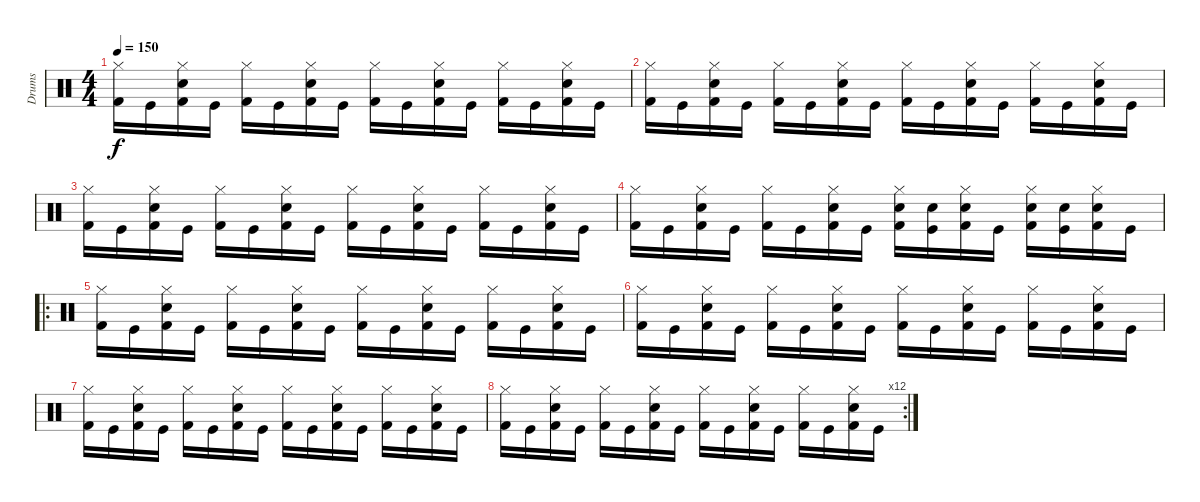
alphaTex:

\track ("Drums" "Drums") {instrument percussion}
\staff {score}
\articulation defaults
\ts (4 4)
\tempo 150
\clef neutral
\ks c
("Hi-Hat (closed)" "Kick (hit) 2").16{dy f} "Kick (hit)".16 ("Hi-Hat (closed)" "Snare (hit) 2" "Kick (hit) 2").16 "Kick (hit)".16 ("Hi-Hat (closed)" "Kick (hit) 2").16 "Kick (hit)".16 ("Hi-Hat (closed)" "Snare (hit) 2" "Kick (hit) 2").16 "Kick (hit)".16 ("Hi-Hat (closed)" "Kick (hit) 2").16 "Kick (hit)".16 ("Hi-Hat (closed)" "Snare (hit) 2" "Kick (hit) 2").16 "Kick (hit)".16 ("Hi-Hat (closed)" "Kick (hit) 2").16 "Kick (hit)".16 ("Hi-Hat (closed)" "Snare (hit) 2" "Kick (hit) 2").16 "Kick (hit)".16 |
("Hi-Hat (closed)" "Kick (hit) 2").16 "Kick (hit)".16 ("Hi-Hat (closed)" "Snare (hit) 2" "Kick (hit) 2").16 "Kick (hit)".16 ("Hi-Hat (closed)" "Kick (hit) 2").16 "Kick (hit)".16 ("Hi-Hat (closed)" "Snare (hit) 2" "Kick (hit) 2").16 "Kick (hit)".16 ("Hi-Hat (closed)" "Kick (hit) 2").16 "Kick (hit)".16 ("Hi-Hat (closed)" "Snare (hit) 2" "Kick (hit) 2").16 "Kick (hit)".16 ("Hi-Hat (closed)" "Kick (hit) 2").16 "Kick (hit)".16 ("Hi-Hat (closed)" "Snare (hit) 2" "Kick (hit) 2").16 "Kick (hit)".16 |
("Hi-Hat (closed)" "Kick (hit) 2").16 "Kick (hit)".16 ("Hi-Hat (closed)" "Snare (hit) 2" "Kick (hit) 2").16 "Kick (hit)".16 ("Hi-Hat (closed)" "Kick (hit) 2").16 "Kick (hit)".16 ("Hi-Hat (closed)" "Snare (hit) 2" "Kick (hit) 2").16 "Kick (hit)".16 ("Hi-Hat (closed)" "Kick (hit) 2").16 "Kick (hit)".16 ("Hi-Hat (closed)" "Snare (hit) 2" "Kick (hit) 2").16 "Kick (hit)".16 ("Hi-Hat (closed)" "Kick (hit) 2").16 "Kick (hit)".16 ("Hi-Hat (closed)" "Snare (hit) 2" "Kick (hit) 2").16 "Kick (hit)".16 |
("Hi-Hat (closed)" "Kick (hit) 2").16 "Kick (hit)".16 ("Hi-Hat (closed)" "Snare (hit) 2" "Kick (hit) 2").16 "Kick (hit)".16 ("Hi-Hat (closed)" "Kick (hit) 2").16 "Kick (hit)".16 ("Hi-Hat (closed)" "Snare (hit) 2" "Kick (hit) 2").16 "Kick (hit)".16 ("Hi-Hat (closed)" "Snare (hit) 2" "Kick (hit) 2").16 ("Snare (hit) 2" "Kick (hit)").16 ("Hi-Hat (closed)" "Snare (hit) 2" "Kick (hit) 2").16 "Kick (hit)".16 ("Hi-Hat (closed)" "Snare (hit) 2" "Kick (hit) 2").16 ("Snare (hit) 2" "Kick (hit)").16 ("Hi-Hat (closed)" "Snare (hit) 2" "Kick (hit) 2").16 "Kick (hit)".16 |
\ro
("Hi-Hat (closed)" "Kick (hit) 2").16 "Kick (hit)".16 ("Hi-Hat (closed)" "Snare (hit) 2" "Kick (hit) 2").16 "Kick (hit)".16 ("Hi-Hat (closed)" "Kick (hit) 2").16 "Kick (hit)".16 ("Hi-Hat (closed)" "Snare (hit) 2" "Kick (hit) 2").16 "Kick (hit)".16 ("Hi-Hat (closed)" "Kick (hit) 2").16 "Kick (hit)".16 ("Hi-Hat (closed)" "Snare (hit) 2" "Kick (hit) 2").16 "Kick (hit)".16 ("Hi-Hat (closed)" "Kick (hit) 2").16 "Kick (hit)".16 ("Hi-Hat (closed)" "Snare (hit) 2" "Kick (hit) 2").16 "Kick (hit)".16 |
("Hi-Hat (closed)" "Kick (hit) 2").16 "Kick (hit)".16 ("Hi-Hat (closed)" "Snare (hit) 2" "Kick (hit) 2").16 "Kick (hit)".16 ("Hi-Hat (closed)" "Kick (hit) 2").16 "Kick (hit)".16 ("Hi-Hat (closed)" "Snare (hit) 2" "Kick (hit) 2").16 "Kick (hit)".16 ("Hi-Hat (closed)" "Kick (hit) 2").16 "Kick (hit)".16 ("Hi-Hat (closed)" "Snare (hit) 2" "Kick (hit) 2").16 "Kick (hit)".16 ("Hi-Hat (closed)" "Kick (hit) 2").16 "Kick (hit)".16 ("Hi-Hat (closed)" "Snare (hit) 2" "Kick (hit) 2").16 "Kick (hit)".16 |
("Hi-Hat (closed)" "Kick (hit) 2").16 "Kick (hit)".16 ("Hi-Hat (closed)" "Snare (hit) 2" "Kick (hit) 2").16 "Kick (hit)".16 ("Hi-Hat (closed)" "Kick (hit) 2").16 "Kick (hit)".16 ("Hi-Hat (closed)" "Snare (hit) 2" "Kick (hit) 2").16 "Kick (hit)".16 ("Hi-Hat (closed)" "Kick (hit) 2").16 "Kick (hit)".16 ("Hi-Hat (closed)" "Snare (hit) 2" "Kick (hit) 2").16 "Kick (hit)".16 ("Hi-Hat (closed)" "Kick (hit) 2").16 "Kick (hit)".16 ("Hi-Hat (closed)" "Snare (hit) 2" "Kick (hit) 2").16 "Kick (hit)".16 |
\rc 12
("Hi-Hat (closed)" "Kick (hit) 2").16 "Kick (hit)".16 ("Hi-Hat (closed)" "Snare (hit) 2" "Kick (hit) 2").16 "Kick (hit)".16 ("Hi-Hat (closed)" "Kick (hit) 2").16 "Kick (hit)".16 ("Hi-Hat (closed)" "Snare (hit) 2" "Kick (hit) 2").16 "Kick (hit)".16 ("Hi-Hat (closed)" "Kick (hit) 2").16 "Kick (hit)".16 ("Hi-Hat (closed)" "Snare (hit) 2" "Kick (hit) 2").16 "Kick (hit)".16 ("Hi-Hat (closed)" "Kick (hit) 2").16 "Kick (hit)".16 ("Hi-Hat (closed)" "Snare (hit) 2" "Kick (hit) 2").16 "Kick (hit)".16
